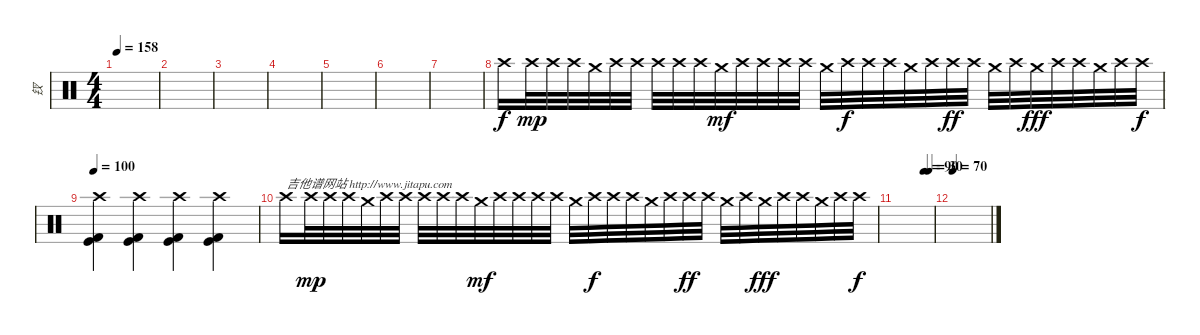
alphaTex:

\track ("钗" "钗") {instrument percussion}
\staff {score}
\articulation defaults
\ts (4 4)
\tempo 158
\clef neutral
\ks c
|
|
|
|
|
|
|
"Crash high (hit)".16 "Crash high (hit)".32{dy mp} "Crash high (hit)".32 "Crash high (hit)".32 "Crash medium (hit)".32 "Crash high (hit)".32 "Crash high (hit)".32 "Crash high (hit)".32 "Crash high (hit)".32 "Crash high (hit)".32 "Crash medium (hit)".32{dy mf} "Crash high (hit)".32 "Crash high (hit)".32 "Crash high (hit)".32 "Crash high (hit)".32 "Crash medium (hit)".32 "Crash high (hit)".32{dy f} "Crash high (hit)".32 "Crash high (hit)".32 "Crash medium (hit)".32 "Crash high (hit)".32 "Crash high (hit)".32{dy ff} "Crash high (hit)".32 "Crash medium (hit)".32 "Crash high (hit)".32 "Crash medium (hit)".32{dy fff} "Crash high (hit)".32 "Crash high (hit)".32 "Crash medium (hit)".32 "Crash high (hit)".32 "Crash high (hit)".32{dy f} |
\tempo 100
("Crash high (hit)" "Kick (hit) 2" "Kick (hit)").4 ("Crash high (hit)" "Kick (hit) 2" "Kick (hit)").4 ("Crash high (hit)" "Kick (hit) 2" "Kick (hit)").4 ("Crash high (hit)" "Kick (hit) 2" "Kick (hit)").4 |
"Crash high (hit)".16{txt "吉他谱网站 http://www.jitapu.com"} "Crash high (hit)".32{dy mp} "Crash high (hit)".32 "Crash high (hit)".32 "Crash medium (hit)".32 "Crash high (hit)".32 "Crash high (hit)".32 "Crash high (hit)".32 "Crash high (hit)".32 "Crash high (hit)".32 "Crash medium (hit)".32{dy mf} "Crash high (hit)".32 "Crash high (hit)".32 "Crash high (hit)".32 "Crash high (hit)".32 "Crash medium (hit)".32 "Crash high (hit)".32{dy f} "Crash high (hit)".32 "Crash high (hit)".32 "Crash medium (hit)".32 "Crash high (hit)".32 "Crash high (hit)".32{dy ff} "Crash high (hit)".32 "Crash medium (hit)".32 "Crash high (hit)".32 "Crash medium (hit)".32{dy fff} "Crash high (hit)".32 "Crash high (hit)".32 "Crash medium (hit)".32 "Crash high (hit)".32 "Crash high (hit)".32{dy f} |
\tempo (30 0.875)
\tempo (90 0.75)
|
\tempo 70
